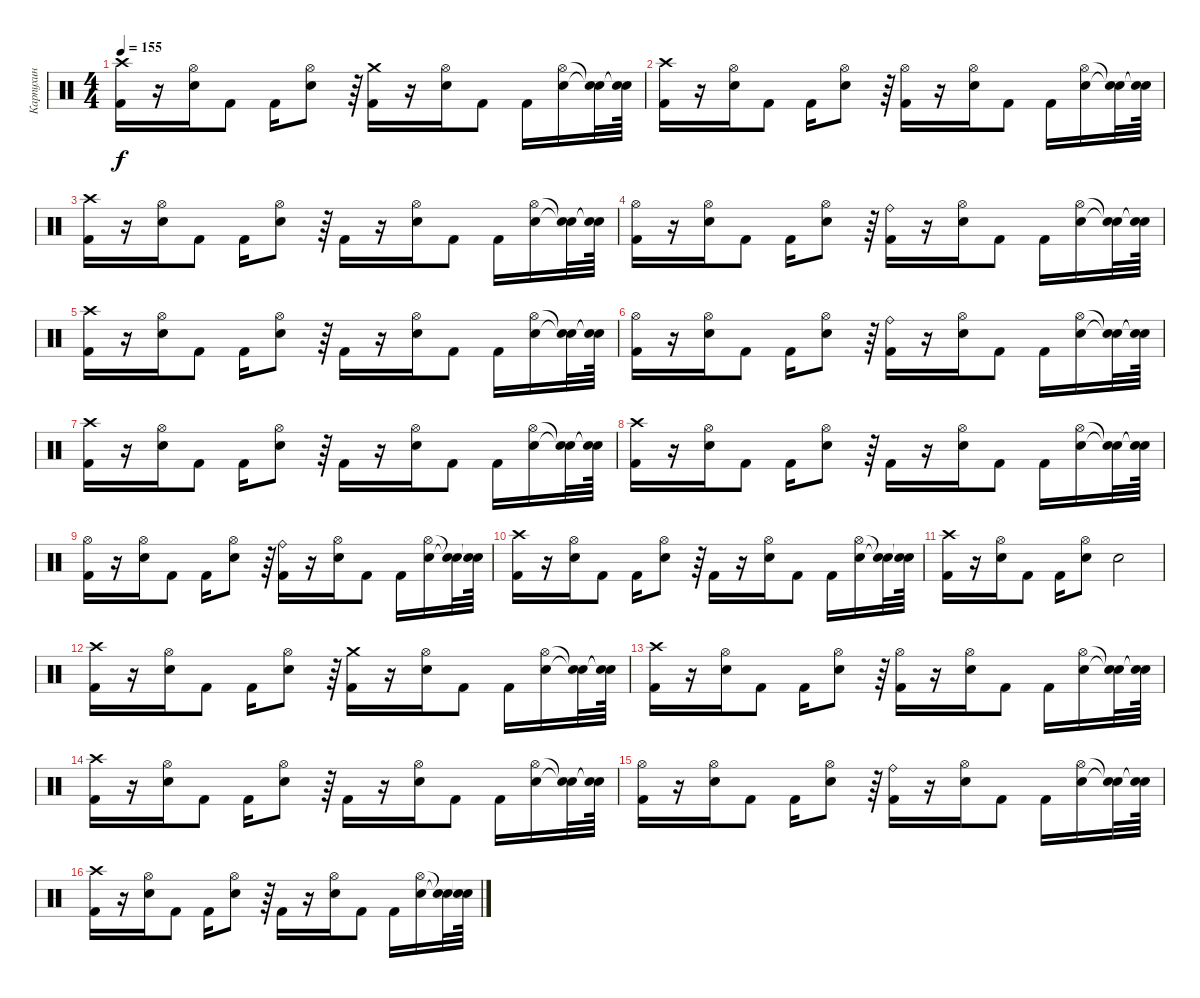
\track ("Карпухин" "Карпухин") {instrument percussion}
\staff {score}
\articulation defaults
\ts (4 4)
\tempo 155
\clef neutral
\ks c
("Kick (hit) 2" "Crash high (hit)").16{dy f} r.16 ("Electric Snare (hit)" "Hi-Hat (open)").16 "Kick (hit) 2".8 "Kick (hit) 2".16 ("Electric Snare (hit)" "Hi-Hat (open)").8 r.64 ("Crash medium (hit)" "Kick (hit) 2").16 r.16 ("Electric Snare (hit)" "Hi-Hat (open)").16 "Kick (hit) 2".8 "Kick (hit) 2".16 ("Electric Snare (hit)" "Hi-Hat (open)").16 ("Snare (hit)"{t} "Snare (hit)"{t}).32 ("Snare (hit)"{t} "Snare (hit)"{t}).64 |
("Kick (hit) 2" "Crash high (hit)").16 r.16 ("Electric Snare (hit)" "Hi-Hat (open)").16 "Kick (hit) 2".8 "Kick (hit) 2".16 ("Electric Snare (hit)" "Hi-Hat (open)").8 r.64 ("Hi-Hat (open)" "Kick (hit) 2").16 r.16 ("Electric Snare (hit)" "Hi-Hat (open)").16 "Kick (hit) 2".8 "Kick (hit) 2".16 ("Electric Snare (hit)" "Hi-Hat (open)").16 ("Snare (hit)"{t} "Snare (hit)"{t}).32 ("Snare (hit)"{t} "Snare (hit)"{t}).64 |
("Kick (hit) 2" "Crash high (hit)").16 r.16 ("Electric Snare (hit)" "Hi-Hat (open)").16 "Kick (hit) 2".8 "Kick (hit) 2".16 ("Electric Snare (hit)" "Hi-Hat (open)").8 r.64 "Kick (hit) 2".16 r.16 ("Electric Snare (hit)" "Hi-Hat (open)").16 "Kick (hit) 2".8 "Kick (hit) 2".16 ("Electric Snare (hit)" "Hi-Hat (open)").16 ("Snare (hit)"{t} "Snare (hit)"{t}).32 ("Snare (hit)"{t} "Snare (hit)"{t}).64 |
("Kick (hit) 2" "Hi-Hat (open)").16 r.16 ("Electric Snare (hit)" "Hi-Hat (open)").16 "Kick (hit) 2".8 "Kick (hit) 2".16 ("Electric Snare (hit)" "Hi-Hat (open)").8 r.64 ("Ride (bell)" "Kick (hit) 2").16 r.16 ("Electric Snare (hit)" "Hi-Hat (open)").16 "Kick (hit) 2".8 "Kick (hit) 2".16 ("Electric Snare (hit)" "Hi-Hat (open)").16 ("Snare (hit)"{t} "Snare (hit)"{t}).32 ("Snare (hit)"{t} "Snare (hit)"{t}).64 |
("Kick (hit) 2" "Crash high (hit)").16 r.16 ("Electric Snare (hit)" "Hi-Hat (open)").16 "Kick (hit) 2".8 "Kick (hit) 2".16 ("Electric Snare (hit)" "Hi-Hat (open)").8 r.64 "Kick (hit) 2".16 r.16 ("Electric Snare (hit)" "Hi-Hat (open)").16 "Kick (hit) 2".8 "Kick (hit) 2".16 ("Electric Snare (hit)" "Hi-Hat (open)").16 ("Snare (hit)"{t} "Snare (hit)"{t}).32 ("Snare (hit)"{t} "Snare (hit)"{t}).64 |
("Kick (hit) 2" "Hi-Hat (open)").16 r.16 ("Electric Snare (hit)" "Hi-Hat (open)").16 "Kick (hit) 2".8 "Kick (hit) 2".16 ("Electric Snare (hit)" "Hi-Hat (open)").8 r.64 ("Ride (bell)" "Kick (hit) 2").16 r.16 ("Electric Snare (hit)" "Hi-Hat (open)").16 "Kick (hit) 2".8 "Kick (hit) 2".16 ("Electric Snare (hit)" "Hi-Hat (open)").16 ("Snare (hit)"{t} "Snare (hit)"{t}).32 ("Snare (hit)"{t} "Snare (hit)"{t}).64 |
("Kick (hit) 2" "Crash high (hit)").16 r.16 ("Electric Snare (hit)" "Hi-Hat (open)").16 "Kick (hit) 2".8 "Kick (hit) 2".16 ("Electric Snare (hit)" "Hi-Hat (open)").8 r.64 "Kick (hit) 2".16 r.16 ("Electric Snare (hit)" "Hi-Hat (open)").16 "Kick (hit) 2".8 "Kick (hit) 2".16 ("Electric Snare (hit)" "Hi-Hat (open)").16 ("Snare (hit)"{t} "Snare (hit)"{t}).32 ("Snare (hit)"{t} "Snare (hit)"{t}).64 |
("Kick (hit) 2" "Crash high (hit)").16 r.16 ("Electric Snare (hit)" "Hi-Hat (open)").16 "Kick (hit) 2".8 "Kick (hit) 2".16 ("Electric Snare (hit)" "Hi-Hat (open)").8 r.64 "Kick (hit) 2".16 r.16 ("Electric Snare (hit)" "Hi-Hat (open)").16 "Kick (hit) 2".8 "Kick (hit) 2".16 ("Electric Snare (hit)" "Hi-Hat (open)").16 ("Snare (hit)"{t} "Snare (hit)"{t}).32 ("Snare (hit)"{t} "Snare (hit)"{t}).64 |
("Kick (hit) 2" "Hi-Hat (open)").16 r.16 ("Electric Snare (hit)" "Hi-Hat (open)").16 "Kick (hit) 2".8 "Kick (hit) 2".16 ("Electric Snare (hit)" "Hi-Hat (open)").8 r.64 ("Ride (bell)" "Kick (hit) 2").16 r.16 ("Electric Snare (hit)" "Hi-Hat (open)").16 "Kick (hit) 2".8 "Kick (hit) 2".16 ("Electric Snare (hit)" "Hi-Hat (open)").16 ("Snare (hit)"{t} "Snare (hit)"{t}).32 ("Snare (hit)"{t} "Snare (hit)"{t}).64 |
("Kick (hit) 2" "Crash high (hit)").16 r.16 ("Electric Snare (hit)" "Hi-Hat (open)").16 "Kick (hit) 2".8 "Kick (hit) 2".16 ("Electric Snare (hit)" "Hi-Hat (open)").8 r.64 "Kick (hit) 2".16 r.16 ("Electric Snare (hit)" "Hi-Hat (open)").16 "Kick (hit) 2".8 "Kick (hit) 2".16 ("Electric Snare (hit)" "Hi-Hat (open)").16 ("Snare (hit)"{t} "Snare (hit)"{t}).32 ("Snare (hit)"{t} "Snare (hit)"{t}).64 |
("Kick (hit) 2" "Crash high (hit)").16 r.16 ("Electric Snare (hit)" "Hi-Hat (open)").16 "Kick (hit) 2".8 "Kick (hit) 2".16 ("Electric Snare (hit)" "Hi-Hat (open)").8 "Electric Snare (hit)".2 |
("Kick (hit) 2" "Crash high (hit)").16 r.16 ("Electric Snare (hit)" "Hi-Hat (open)").16 "Kick (hit) 2".8 "Kick (hit) 2".16 ("Electric Snare (hit)" "Hi-Hat (open)").8 r.64 ("Crash medium (hit)" "Kick (hit) 2").16 r.16 ("Electric Snare (hit)" "Hi-Hat (open)").16 "Kick (hit) 2".8 "Kick (hit) 2".16 ("Electric Snare (hit)" "Hi-Hat (open)").16 ("Snare (hit)"{t} "Snare (hit)"{t}).32 ("Snare (hit)"{t} "Snare (hit)"{t}).64 |
("Kick (hit) 2" "Crash high (hit)").16 r.16 ("Electric Snare (hit)" "Hi-Hat (open)").16 "Kick (hit) 2".8 "Kick (hit) 2".16 ("Electric Snare (hit)" "Hi-Hat (open)").8 r.64 ("Hi-Hat (open)" "Kick (hit) 2").16 r.16 ("Electric Snare (hit)" "Hi-Hat (open)").16 "Kick (hit) 2".8 "Kick (hit) 2".16 ("Electric Snare (hit)" "Hi-Hat (open)").16 ("Snare (hit)"{t} "Snare (hit)"{t}).32 ("Snare (hit)"{t} "Snare (hit)"{t}).64 |
("Kick (hit) 2" "Crash high (hit)").16 r.16 ("Electric Snare (hit)" "Hi-Hat (open)").16 "Kick (hit) 2".8 "Kick (hit) 2".16 ("Electric Snare (hit)" "Hi-Hat (open)").8 r.64 "Kick (hit) 2".16 r.16 ("Electric Snare (hit)" "Hi-Hat (open)").16 "Kick (hit) 2".8 "Kick (hit) 2".16 ("Electric Snare (hit)" "Hi-Hat (open)").16 ("Snare (hit)"{t} "Snare (hit)"{t}).32 ("Snare (hit)"{t} "Snare (hit)"{t}).64 |
("Kick (hit) 2" "Hi-Hat (open)").16 r.16 ("Electric Snare (hit)" "Hi-Hat (open)").16 "Kick (hit) 2".8 "Kick (hit) 2".16 ("Electric Snare (hit)" "Hi-Hat (open)").8 r.64 ("Ride (bell)" "Kick (hit) 2").16 r.16 ("Electric Snare (hit)" "Hi-Hat (open)").16 "Kick (hit) 2".8 "Kick (hit) 2".16 ("Electric Snare (hit)" "Hi-Hat (open)").16 ("Snare (hit)"{t} "Snare (hit)"{t}).32 ("Snare (hit)"{t} "Snare (hit)"{t}).64 |
("Kick (hit) 2" "Crash high (hit)").16 r.16 ("Electric Snare (hit)" "Hi-Hat (open)").16 "Kick (hit) 2".8 "Kick (hit) 2".16 ("Electric Snare (hit)" "Hi-Hat (open)").8 r.64 "Kick (hit) 2".16 r.16 ("Electric Snare (hit)" "Hi-Hat (open)").16 "Kick (hit) 2".8 "Kick (hit) 2".16 ("Electric Snare (hit)" "Hi-Hat (open)").16 ("Snare (hit)"{t} "Snare (hit)"{t}).32 ("Snare (hit)"{t} "Snare (hit)"{t}).64
